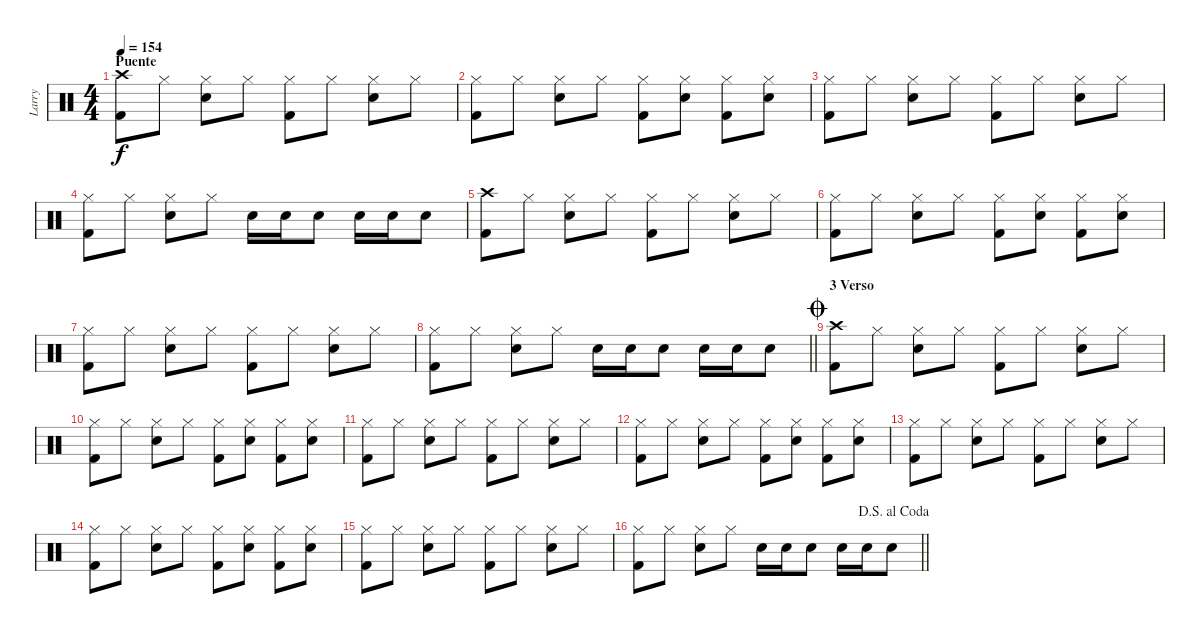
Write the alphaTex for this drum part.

\track ("Larry " "Larry ") {instrument percussion}
\staff {score}
\articulation defaults
\ts (4 4)
\section ("" "Puente")
\tempo 154
\clef neutral
\ks c
("Crash high (hit)" "Kick (hit) 2").8{dy f} "Hi-Hat (closed)".8 ("Hi-Hat (closed)" "Snare (hit) 2").8 "Hi-Hat (closed)".8 ("Hi-Hat (closed)" "Kick (hit) 2").8 "Hi-Hat (closed)".8 ("Hi-Hat (closed)" "Snare (hit) 2").8 "Hi-Hat (closed)".8 |
("Hi-Hat (closed)" "Kick (hit) 2").8 "Hi-Hat (closed)".8 ("Snare (hit) 2" "Hi-Hat (closed)").8 "Hi-Hat (closed)".8 ("Hi-Hat (closed)" "Kick (hit) 2").8 ("Snare (hit) 2" "Hi-Hat (closed)").8 ("Hi-Hat (closed)" "Kick (hit) 2").8 ("Snare (hit) 2" "Hi-Hat (closed)").8 |
("Hi-Hat (closed)" "Kick (hit) 2").8 "Hi-Hat (closed)".8 ("Hi-Hat (closed)" "Snare (hit) 2").8 "Hi-Hat (closed)".8 ("Hi-Hat (closed)" "Kick (hit) 2").8 "Hi-Hat (closed)".8 ("Hi-Hat (closed)" "Snare (hit) 2").8 "Hi-Hat (closed)".8 |
("Hi-Hat (closed)" "Kick (hit) 2").8 "Hi-Hat (closed)".8 ("Hi-Hat (closed)" "Snare (hit) 2").8 "Hi-Hat (closed)".8 "Snare (hit) 2".16 "Snare (hit) 2".16 "Snare (hit) 2".8 "Snare (hit) 2".16 "Snare (hit) 2".16 "Snare (hit) 2".8 |
("Crash high (hit)" "Kick (hit) 2").8 "Hi-Hat (closed)".8 ("Hi-Hat (closed)" "Snare (hit) 2").8 "Hi-Hat (closed)".8 ("Hi-Hat (closed)" "Kick (hit) 2").8 "Hi-Hat (closed)".8 ("Hi-Hat (closed)" "Snare (hit) 2").8 "Hi-Hat (closed)".8 |
("Hi-Hat (closed)" "Kick (hit) 2").8 "Hi-Hat (closed)".8 ("Snare (hit) 2" "Hi-Hat (closed)").8 "Hi-Hat (closed)".8 ("Hi-Hat (closed)" "Kick (hit) 2").8 ("Snare (hit) 2" "Hi-Hat (closed)").8 ("Hi-Hat (closed)" "Kick (hit) 2").8 ("Snare (hit) 2" "Hi-Hat (closed)").8 |
("Hi-Hat (closed)" "Kick (hit) 2").8 "Hi-Hat (closed)".8 ("Hi-Hat (closed)" "Snare (hit) 2").8 "Hi-Hat (closed)".8 ("Hi-Hat (closed)" "Kick (hit) 2").8 "Hi-Hat (closed)".8 ("Hi-Hat (closed)" "Snare (hit) 2").8 "Hi-Hat (closed)".8 |
\barLineRight lightlight
("Hi-Hat (closed)" "Kick (hit) 2").8 "Hi-Hat (closed)".8 ("Hi-Hat (closed)" "Snare (hit) 2").8 "Hi-Hat (closed)".8 "Snare (hit) 2".16 "Snare (hit) 2".16 "Snare (hit) 2".8 "Snare (hit) 2".16 "Snare (hit) 2".16 "Snare (hit) 2".8 |
\section ("" "3 Verso")
\jump coda
("Crash high (hit)" "Kick (hit) 2").8 "Hi-Hat (closed)".8 ("Hi-Hat (closed)" "Snare (hit) 2").8 "Hi-Hat (closed)".8 ("Hi-Hat (closed)" "Kick (hit) 2").8 "Hi-Hat (closed)".8 ("Hi-Hat (closed)" "Snare (hit) 2").8 "Hi-Hat (closed)".8 |
("Hi-Hat (closed)" "Kick (hit) 2").8 "Hi-Hat (closed)".8 ("Snare (hit) 2" "Hi-Hat (closed)").8 "Hi-Hat (closed)".8 ("Hi-Hat (closed)" "Kick (hit) 2").8 ("Snare (hit) 2" "Hi-Hat (closed)").8 ("Hi-Hat (closed)" "Kick (hit) 2").8 ("Snare (hit) 2" "Hi-Hat (closed)").8 |
("Hi-Hat (closed)" "Kick (hit) 2").8 "Hi-Hat (closed)".8 ("Hi-Hat (closed)" "Snare (hit) 2").8 "Hi-Hat (closed)".8 ("Hi-Hat (closed)" "Kick (hit) 2").8 "Hi-Hat (closed)".8 ("Hi-Hat (closed)" "Snare (hit) 2").8 "Hi-Hat (closed)".8 |
("Hi-Hat (closed)" "Kick (hit) 2").8 "Hi-Hat (closed)".8 ("Snare (hit) 2" "Hi-Hat (closed)").8 "Hi-Hat (closed)".8 ("Hi-Hat (closed)" "Kick (hit) 2").8 ("Snare (hit) 2" "Hi-Hat (closed)").8 ("Hi-Hat (closed)" "Kick (hit) 2").8 ("Snare (hit) 2" "Hi-Hat (closed)").8 |
("Hi-Hat (closed)" "Kick (hit) 2").8 "Hi-Hat (closed)".8 ("Hi-Hat (closed)" "Snare (hit) 2").8 "Hi-Hat (closed)".8 ("Hi-Hat (closed)" "Kick (hit) 2").8 "Hi-Hat (closed)".8 ("Hi-Hat (closed)" "Snare (hit) 2").8 "Hi-Hat (closed)".8 |
("Hi-Hat (closed)" "Kick (hit) 2").8 "Hi-Hat (closed)".8 ("Snare (hit) 2" "Hi-Hat (closed)").8 "Hi-Hat (closed)".8 ("Hi-Hat (closed)" "Kick (hit) 2").8 ("Snare (hit) 2" "Hi-Hat (closed)").8 ("Hi-Hat (closed)" "Kick (hit) 2").8 ("Snare (hit) 2" "Hi-Hat (closed)").8 |
("Hi-Hat (closed)" "Kick (hit) 2").8 "Hi-Hat (closed)".8 ("Hi-Hat (closed)" "Snare (hit) 2").8 "Hi-Hat (closed)".8 ("Hi-Hat (closed)" "Kick (hit) 2").8 "Hi-Hat (closed)".8 ("Hi-Hat (closed)" "Snare (hit) 2").8 "Hi-Hat (closed)".8 |
\jump dalsegnoalcoda
\barLineRight lightlight
("Hi-Hat (closed)" "Kick (hit) 2").8 "Hi-Hat (closed)".8 ("Hi-Hat (closed)" "Snare (hit) 2").8 "Hi-Hat (closed)".8 "Snare (hit) 2".16 "Snare (hit) 2".16 "Snare (hit) 2".8 "Snare (hit) 2".16 "Snare (hit) 2".16 "Snare (hit) 2".8
